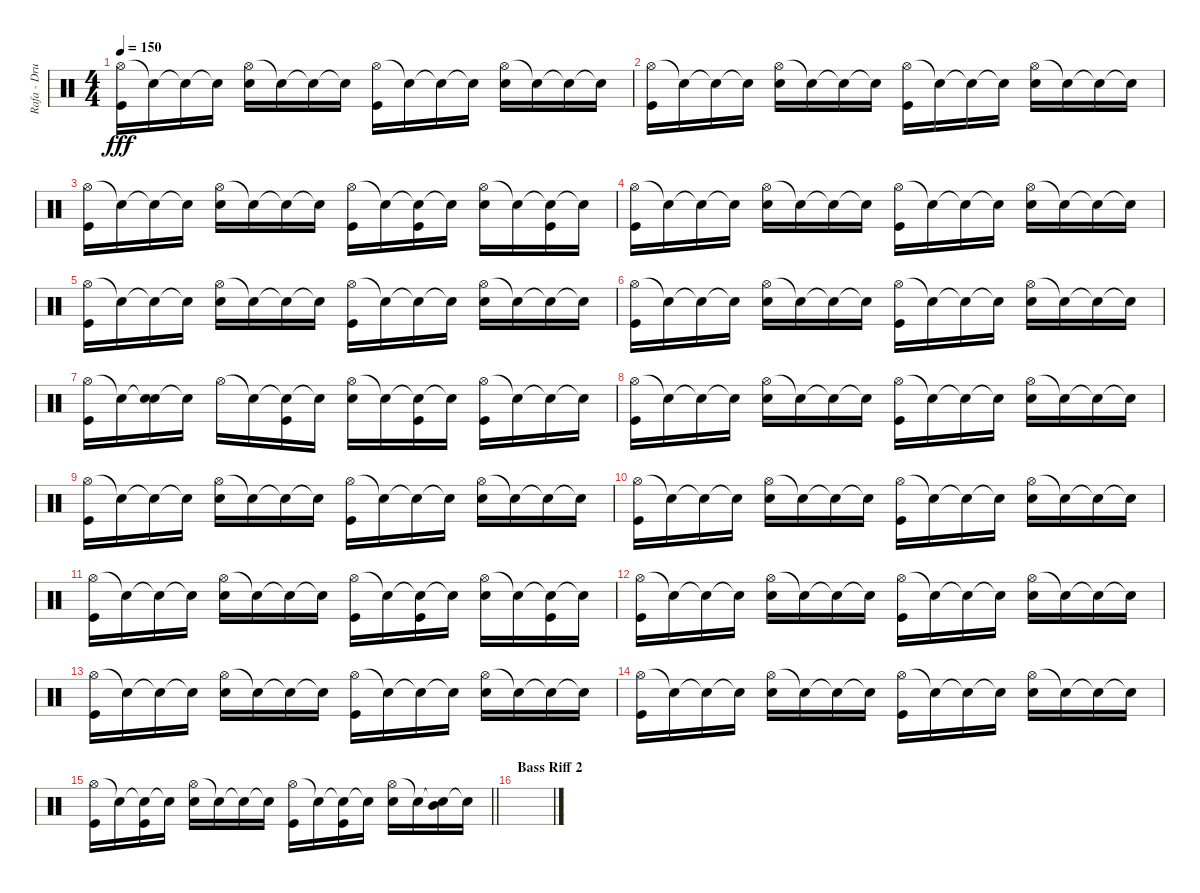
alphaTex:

\track ("Rafa - Drums" "Rafa - Dru") {instrument percussion}
\staff {score}
\articulation defaults
\ts (4 4)
\tempo 150
\clef neutral
\ks c
("Hi-Hat (open)" "Kick (hit)").16{dy fff} "Snare (hit)"{t}.16 "Snare (hit)"{t}.16 "Snare (hit)"{t}.16 ("Hi-Hat (open)" "Electric Snare (hit)").16 "Snare (hit)"{t}.16 "Snare (hit)"{t}.16 "Snare (hit)"{t}.16 ("Hi-Hat (open)" "Kick (hit)").16 "Snare (hit)"{t}.16 "Snare (hit)"{t}.16 "Snare (hit)"{t}.16 ("Hi-Hat (open)" "Electric Snare (hit)").16 "Snare (hit)"{t}.16 "Snare (hit)"{t}.16 "Snare (hit)"{t}.16 |
("Hi-Hat (open)" "Kick (hit)").16 "Snare (hit)"{t}.16 "Snare (hit)"{t}.16 "Snare (hit)"{t}.16 ("Hi-Hat (open)" "Electric Snare (hit)").16 "Snare (hit)"{t}.16 "Snare (hit)"{t}.16 "Snare (hit)"{t}.16 ("Hi-Hat (open)" "Kick (hit)").16 "Snare (hit)"{t}.16 "Snare (hit)"{t}.16 "Snare (hit)"{t}.16 ("Hi-Hat (open)" "Electric Snare (hit)").16 "Snare (hit)"{t}.16 "Snare (hit)"{t}.16 "Snare (hit)"{t}.16 |
("Hi-Hat (open)" "Kick (hit)").16 "Snare (hit)"{t}.16 "Snare (hit)"{t}.16 "Snare (hit)"{t}.16 ("Hi-Hat (open)" "Electric Snare (hit)").16 "Snare (hit)"{t}.16 "Snare (hit)"{t}.16 "Snare (hit)"{t}.16 ("Hi-Hat (open)" "Kick (hit)").16 "Snare (hit)"{t}.16 ("Snare (hit)"{t} "Kick (hit)").16 "Snare (hit)"{t}.16 ("Hi-Hat (open)" "Electric Snare (hit)").16 "Snare (hit)"{t}.16 ("Snare (hit)"{t} "Kick (hit)").16 "Snare (hit)"{t}.16 |
("Hi-Hat (open)" "Kick (hit)").16 "Snare (hit)"{t}.16 "Snare (hit)"{t}.16 "Snare (hit)"{t}.16 ("Hi-Hat (open)" "Electric Snare (hit)").16 "Snare (hit)"{t}.16 "Snare (hit)"{t}.16 "Snare (hit)"{t}.16 ("Hi-Hat (open)" "Kick (hit)").16 "Snare (hit)"{t}.16 "Snare (hit)"{t}.16 "Snare (hit)"{t}.16 ("Hi-Hat (open)" "Electric Snare (hit)").16 "Snare (hit)"{t}.16 "Snare (hit)"{t}.16 "Snare (hit)"{t}.16 |
("Hi-Hat (open)" "Kick (hit)").16 "Snare (hit)"{t}.16 "Snare (hit)"{t}.16 "Snare (hit)"{t}.16 ("Hi-Hat (open)" "Electric Snare (hit)").16 "Snare (hit)"{t}.16 "Snare (hit)"{t}.16 "Snare (hit)"{t}.16 ("Hi-Hat (open)" "Kick (hit)").16 "Snare (hit)"{t}.16 "Snare (hit)"{t}.16 "Snare (hit)"{t}.16 ("Hi-Hat (open)" "Electric Snare (hit)").16 "Snare (hit)"{t}.16 "Snare (hit)"{t}.16 "Snare (hit)"{t}.16 |
("Hi-Hat (open)" "Kick (hit)").16 "Snare (hit)"{t}.16 "Snare (hit)"{t}.16 "Snare (hit)"{t}.16 ("Hi-Hat (open)" "Electric Snare (hit)").16 "Snare (hit)"{t}.16 "Snare (hit)"{t}.16 "Snare (hit)"{t}.16 ("Hi-Hat (open)" "Kick (hit)").16 "Snare (hit)"{t}.16 "Snare (hit)"{t}.16 "Snare (hit)"{t}.16 ("Hi-Hat (open)" "Electric Snare (hit)").16 "Snare (hit)"{t}.16 "Snare (hit)"{t}.16 "Snare (hit)"{t}.16 |
("Hi-Hat (open)" "Kick (hit)").16 "Snare (hit)"{t}.16 ("Snare (hit)"{t} "Electric Snare (hit)").16 "Snare (hit)"{t}.16 "Hi-Hat (open)".16 "Snare (hit)"{t}.16 ("Snare (hit)"{t} "Kick (hit)").16 "Snare (hit)"{t}.16 ("Hi-Hat (open)" "Electric Snare (hit)").16 "Snare (hit)"{t}.16 ("Snare (hit)"{t} "Kick (hit)").16 "Snare (hit)"{t}.16 ("Hi-Hat (open)" "Kick (hit)").16 "Snare (hit)"{t}.16 "Snare (hit)"{t}.16 "Snare (hit)"{t}.16 |
("Hi-Hat (open)" "Kick (hit)").16 "Snare (hit)"{t}.16 "Snare (hit)"{t}.16 "Snare (hit)"{t}.16 ("Hi-Hat (open)" "Electric Snare (hit)").16 "Snare (hit)"{t}.16 "Snare (hit)"{t}.16 "Snare (hit)"{t}.16 ("Hi-Hat (open)" "Kick (hit)").16 "Snare (hit)"{t}.16 "Snare (hit)"{t}.16 "Snare (hit)"{t}.16 ("Hi-Hat (open)" "Electric Snare (hit)").16 "Snare (hit)"{t}.16 "Snare (hit)"{t}.16 "Snare (hit)"{t}.16 |
("Hi-Hat (open)" "Kick (hit)").16 "Snare (hit)"{t}.16 "Snare (hit)"{t}.16 "Snare (hit)"{t}.16 ("Hi-Hat (open)" "Electric Snare (hit)").16 "Snare (hit)"{t}.16 "Snare (hit)"{t}.16 "Snare (hit)"{t}.16 ("Hi-Hat (open)" "Kick (hit)").16 "Snare (hit)"{t}.16 "Snare (hit)"{t}.16 "Snare (hit)"{t}.16 ("Hi-Hat (open)" "Electric Snare (hit)").16 "Snare (hit)"{t}.16 "Snare (hit)"{t}.16 "Snare (hit)"{t}.16 |
("Hi-Hat (open)" "Kick (hit)").16 "Snare (hit)"{t}.16 "Snare (hit)"{t}.16 "Snare (hit)"{t}.16 ("Hi-Hat (open)" "Electric Snare (hit)").16 "Snare (hit)"{t}.16 "Snare (hit)"{t}.16 "Snare (hit)"{t}.16 ("Hi-Hat (open)" "Kick (hit)").16 "Snare (hit)"{t}.16 "Snare (hit)"{t}.16 "Snare (hit)"{t}.16 ("Hi-Hat (open)" "Electric Snare (hit)").16 "Snare (hit)"{t}.16 "Snare (hit)"{t}.16 "Snare (hit)"{t}.16 |
("Hi-Hat (open)" "Kick (hit)").16 "Snare (hit)"{t}.16 "Snare (hit)"{t}.16 "Snare (hit)"{t}.16 ("Hi-Hat (open)" "Electric Snare (hit)").16 "Snare (hit)"{t}.16 "Snare (hit)"{t}.16 "Snare (hit)"{t}.16 ("Hi-Hat (open)" "Kick (hit)").16 "Snare (hit)"{t}.16 ("Snare (hit)"{t} "Kick (hit)").16 "Snare (hit)"{t}.16 ("Hi-Hat (open)" "Electric Snare (hit)").16 "Snare (hit)"{t}.16 ("Snare (hit)"{t} "Kick (hit)").16 "Snare (hit)"{t}.16 |
("Hi-Hat (open)" "Kick (hit)").16 "Snare (hit)"{t}.16 "Snare (hit)"{t}.16 "Snare (hit)"{t}.16 ("Hi-Hat (open)" "Electric Snare (hit)").16 "Snare (hit)"{t}.16 "Snare (hit)"{t}.16 "Snare (hit)"{t}.16 ("Hi-Hat (open)" "Kick (hit)").16 "Snare (hit)"{t}.16 "Snare (hit)"{t}.16 "Snare (hit)"{t}.16 ("Hi-Hat (open)" "Electric Snare (hit)").16 "Snare (hit)"{t}.16 "Snare (hit)"{t}.16 "Snare (hit)"{t}.16 |
("Hi-Hat (open)" "Kick (hit)").16 "Snare (hit)"{t}.16 "Snare (hit)"{t}.16 "Snare (hit)"{t}.16 ("Hi-Hat (open)" "Electric Snare (hit)").16 "Snare (hit)"{t}.16 "Snare (hit)"{t}.16 "Snare (hit)"{t}.16 ("Hi-Hat (open)" "Kick (hit)").16 "Snare (hit)"{t}.16 "Snare (hit)"{t}.16 "Snare (hit)"{t}.16 ("Hi-Hat (open)" "Electric Snare (hit)").16 "Snare (hit)"{t}.16 "Snare (hit)"{t}.16 "Snare (hit)"{t}.16 |
("Hi-Hat (open)" "Kick (hit)").16 "Snare (hit)"{t}.16 "Snare (hit)"{t}.16 "Snare (hit)"{t}.16 ("Hi-Hat (open)" "Electric Snare (hit)").16 "Snare (hit)"{t}.16 "Snare (hit)"{t}.16 "Snare (hit)"{t}.16 ("Hi-Hat (open)" "Kick (hit)").16 "Snare (hit)"{t}.16 "Snare (hit)"{t}.16 "Snare (hit)"{t}.16 ("Hi-Hat (open)" "Electric Snare (hit)").16 "Snare (hit)"{t}.16 "Snare (hit)"{t}.16 "Snare (hit)"{t}.16 |
\barLineRight lightlight
("Hi-Hat (open)" "Kick (hit)").16 "Snare (hit)"{t}.16 ("Snare (hit)"{t} "Kick (hit)").16 "Snare (hit)"{t}.16 ("Hi-Hat (open)" "Electric Snare (hit)").16 "Snare (hit)"{t}.16 "Snare (hit)"{t}.16 "Snare (hit)"{t}.16 ("Hi-Hat (open)" "Kick (hit)").16 "Snare (hit)"{t}.16 ("Snare (hit)"{t} "Kick (hit)").16 "Snare (hit)"{t}.16 ("Hi-Hat (open)" "Electric Snare (hit)").16 "Snare (hit)"{t}.16 ("Snare (hit)"{t} "Mid Tom (hit)").16 "Snare (hit)"{t}.16 |
\section ("" "Bass Riff 2")
